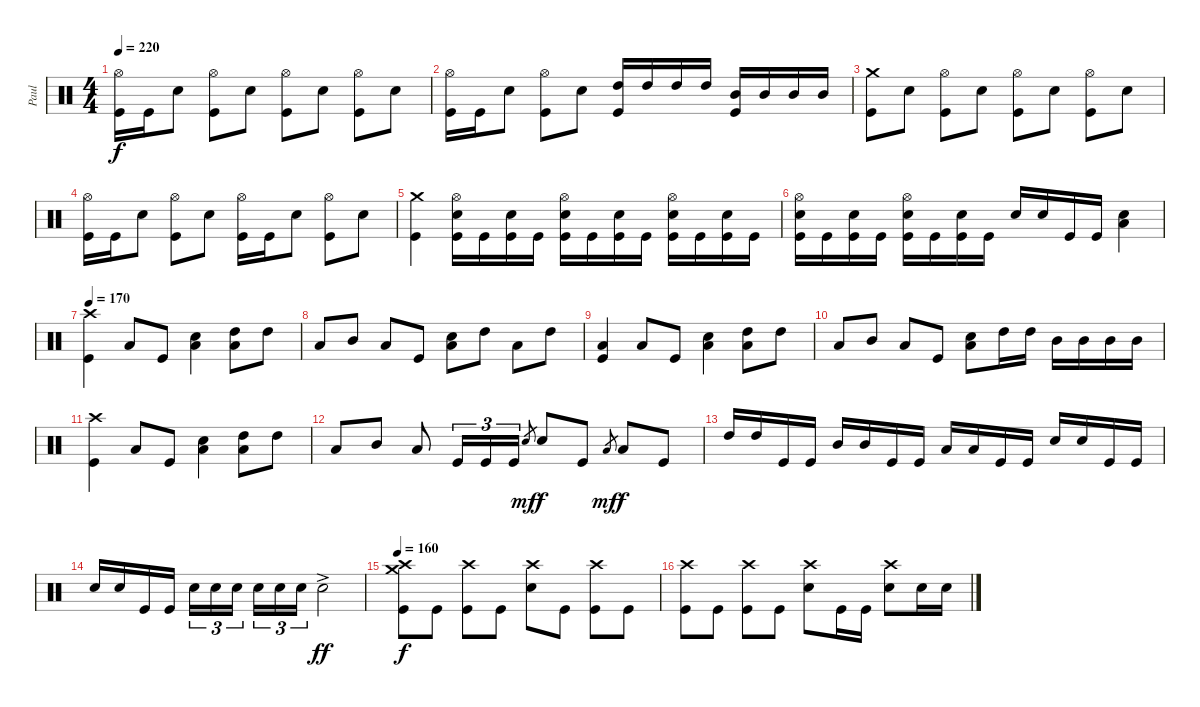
\track ("Paul" "Paul") {instrument percussion}
\staff {score}
\articulation defaults
\ts (4 4)
\tempo 220
\clef neutral
\ks c
("Hi-Hat (open)" "Kick (hit)").16{dy f} "Kick (hit)".16 "Electric Snare (hit)".8 ("Hi-Hat (open)" "Kick (hit)").8 "Electric Snare (hit)".8 ("Hi-Hat (open)" "Kick (hit)").8 "Electric Snare (hit)".8 ("Hi-Hat (open)" "Kick (hit)").8 "Electric Snare (hit)".8 |
("Hi-Hat (open)" "Kick (hit)").16 "Kick (hit)".16 "Electric Snare (hit)".8 ("Hi-Hat (open)" "Kick (hit)").8 "Electric Snare (hit)".8 ("High Tom (hit)" "Kick (hit)").16 "High Tom (hit)".16 "High Tom (hit)".16 "High Tom (hit)".16 ("Mid Tom (hit)" "Kick (hit)").16 "Mid Tom (hit)".16 "Mid Tom (hit)".16 "Mid Tom (hit)".16 |
("Crash medium (hit)" "Kick (hit)").8 "Electric Snare (hit)".8 ("Hi-Hat (open)" "Kick (hit)").8 "Electric Snare (hit)".8 ("Hi-Hat (open)" "Kick (hit)").8 "Electric Snare (hit)".8 ("Hi-Hat (open)" "Kick (hit)").8 "Electric Snare (hit)".8 |
("Hi-Hat (open)" "Kick (hit)").16 "Kick (hit)".16 "Electric Snare (hit)".8 ("Hi-Hat (open)" "Kick (hit)").8 "Electric Snare (hit)".8 ("Hi-Hat (open)" "Kick (hit)").16 "Kick (hit)".16 "Electric Snare (hit)".8 ("Hi-Hat (open)" "Kick (hit)").8 "Electric Snare (hit)".8 |
("Crash medium (hit)" "Kick (hit)").4 ("Hi-Hat (open)" "Electric Snare (hit)" "Kick (hit)").16 "Kick (hit)".16 ("Electric Snare (hit)" "Kick (hit)").16 "Kick (hit)".16 ("Hi-Hat (open)" "Electric Snare (hit)" "Kick (hit)").16 "Kick (hit)".16 ("Electric Snare (hit)" "Kick (hit)").16 "Kick (hit)".16 ("Hi-Hat (open)" "Electric Snare (hit)" "Kick (hit)").16 "Kick (hit)".16 ("Electric Snare (hit)" "Kick (hit)").16 "Kick (hit)".16 |
("Hi-Hat (open)" "Electric Snare (hit)" "Kick (hit)").16 "Kick (hit)".16 ("Electric Snare (hit)" "Kick (hit)").16 "Kick (hit)".16 ("Hi-Hat (open)" "Electric Snare (hit)" "Kick (hit)").16 "Kick (hit)".16 ("Electric Snare (hit)" "Kick (hit)").16 "Kick (hit)".16 "Electric Snare (hit)".16 "Electric Snare (hit)".16 "Kick (hit)".16 "Kick (hit)".16 ("Electric Snare (hit)" "Low Floor Tom (hit)").4 |
\tempo 170
("Crash high (hit)" "Kick (hit)").4 "Low Floor Tom (hit)".8 "Kick (hit)".8 ("Electric Snare (hit)" "Low Floor Tom (hit)").4 ("High Tom (hit)" "Low Floor Tom (hit)").8 "High Tom (hit)".8 |
"Low Floor Tom (hit)".8 "Mid Tom (hit)".8 "Low Floor Tom (hit)".8 "Kick (hit)".8 ("Electric Snare (hit)" "Low Floor Tom (hit)").8 "High Tom (hit)".8 "Low Floor Tom (hit)".8 "High Tom (hit)".8 |
("Low Floor Tom (hit)" "Kick (hit)").4 "Low Floor Tom (hit)".8 "Kick (hit)".8 ("Electric Snare (hit)" "Low Floor Tom (hit)").4 ("High Tom (hit)" "Low Floor Tom (hit)").8 "High Tom (hit)".8 |
"Low Floor Tom (hit)".8 "Mid Tom (hit)".8 "Low Floor Tom (hit)".8 "Kick (hit)".8 ("Electric Snare (hit)" "Low Floor Tom (hit)").8 "High Tom (hit)".16 "High Tom (hit)".16 "Mid Tom (hit)".16 "Mid Tom (hit)".16 "Mid Tom (hit)".16 "Mid Tom (hit)".16 |
("Crash high (hit)" "Kick (hit)").4 "Low Floor Tom (hit)".8 "Kick (hit)".8 ("Electric Snare (hit)" "Low Floor Tom (hit)").4 ("High Tom (hit)" "Low Floor Tom (hit)").8 "High Tom (hit)".8 |
"Low Floor Tom (hit)".8 "Mid Tom (hit)".8 "Low Floor Tom (hit)".8 "Kick (hit)".16{tu (3 2)} "Kick (hit)".16{tu (3 2)} "Kick (hit)".16{tu (3 2)} "Electric Snare (hit)".8{gr dy mf} "Electric Snare (hit)".8{dy f} "Kick (hit)".8 "Low Floor Tom (hit)".8{gr dy mf} "Low Floor Tom (hit)".8{dy f} "Kick (hit)".8 |
"High Tom (hit)".16 "High Tom (hit)".16 "Kick (hit)".16 "Kick (hit)".16 "Mid Tom (hit)".16 "Mid Tom (hit)".16 "Kick (hit)".16 "Kick (hit)".16 "Low Floor Tom (hit)".16 "Low Floor Tom (hit)".16 "Kick (hit)".16 "Kick (hit)".16 "Electric Snare (hit)".16 "Electric Snare (hit)".16 "Kick (hit)".16 "Kick (hit)".16 |
"Electric Snare (hit)".16 "Electric Snare (hit)".16 "Kick (hit)".16 "Kick (hit)".16 "Electric Snare (hit)".16{tu (3 2)} "Electric Snare (hit)".16{tu (3 2)} "Electric Snare (hit)".16{tu (3 2) beam splitsecondary} "Electric Snare (hit)".16{tu (3 2)} "Electric Snare (hit)".16{tu (3 2)} "Electric Snare (hit)".16{tu (3 2)} "Electric Snare (hit)"{ac}.2{dy ff} |
\tempo 160
("Crash high (hit)" "Crash medium (hit)" "Kick (hit)").8{dy f} "Kick (hit)".8 ("Crash high (hit)" "Kick (hit)").8 "Kick (hit)".8 ("Crash high (hit)" "Electric Snare (hit)").8 "Kick (hit)".8 ("Crash high (hit)" "Kick (hit)").8 "Kick (hit)".8 |
("Crash high (hit)" "Kick (hit)").8 "Kick (hit)".8 ("Crash high (hit)" "Kick (hit)").8 "Kick (hit)".8 ("Crash high (hit)" "Electric Snare (hit)").8 "Kick (hit)".16 "Kick (hit)".16 ("Crash high (hit)" "Electric Snare (hit)").8 "Electric Snare (hit)".16 "Electric Snare (hit)".16
